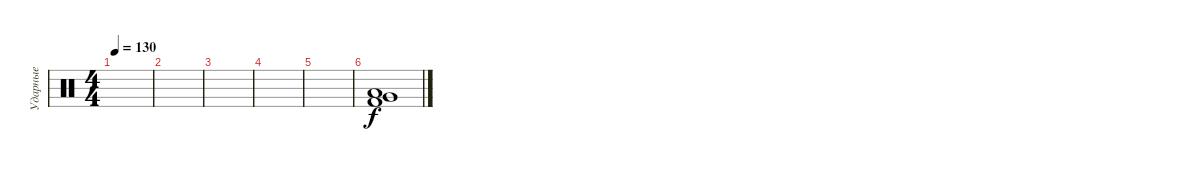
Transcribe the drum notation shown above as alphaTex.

\track ("Ударные" "Ударные") {instrument percussion}
\staff {score}
\articulation defaults
\ts (4 4)
\tempo 130
\clef neutral
\ks c
|
|
|
|
|
("Low Floor Tom (hit)" "Kick (hit) 2" "Very Low Tom (hit)").1
